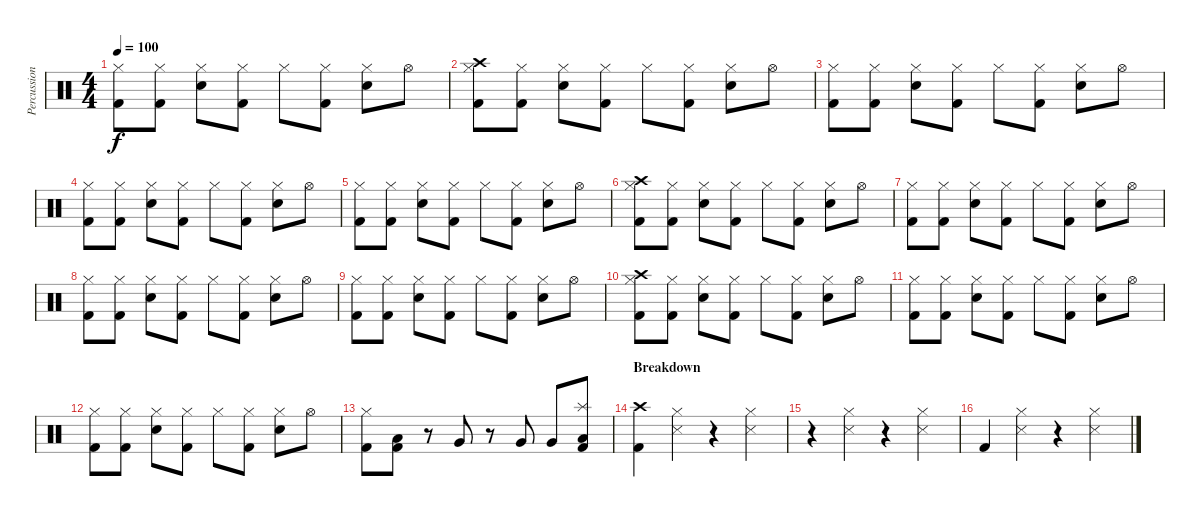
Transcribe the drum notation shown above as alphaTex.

\track ("Percussion" "Percussion") {instrument percussion}
\staff {score}
\articulation defaults
\ts (4 4)
\tempo 100
\clef neutral
\ks c
("Hi-Hat (closed)" "Kick (hit) 2").8{dy f} ("Hi-Hat (closed)" "Kick (hit) 2").8 ("Hi-Hat (closed)" "Electric Snare (hit)").8 ("Hi-Hat (closed)" "Kick (hit) 2").8 "Hi-Hat (closed)".8 ("Hi-Hat (closed)" "Kick (hit) 2").8 ("Hi-Hat (closed)" "Electric Snare (hit)").8 "Hi-Hat (open)".8 |
("Crash high (hit)" "Hi-Hat (closed)" "Kick (hit) 2").8 ("Hi-Hat (closed)" "Kick (hit) 2").8 ("Hi-Hat (closed)" "Electric Snare (hit)").8 ("Hi-Hat (closed)" "Kick (hit) 2").8 "Hi-Hat (closed)".8 ("Hi-Hat (closed)" "Kick (hit) 2").8 ("Hi-Hat (closed)" "Electric Snare (hit)").8 "Hi-Hat (open)".8 |
("Hi-Hat (closed)" "Kick (hit) 2").8 ("Hi-Hat (closed)" "Kick (hit) 2").8 ("Hi-Hat (closed)" "Electric Snare (hit)").8 ("Hi-Hat (closed)" "Kick (hit) 2").8 "Hi-Hat (closed)".8 ("Hi-Hat (closed)" "Kick (hit) 2").8 ("Hi-Hat (closed)" "Electric Snare (hit)").8 "Hi-Hat (open)".8 |
("Hi-Hat (closed)" "Kick (hit) 2").8 ("Hi-Hat (closed)" "Kick (hit) 2").8 ("Hi-Hat (closed)" "Electric Snare (hit)").8 ("Hi-Hat (closed)" "Kick (hit) 2").8 "Hi-Hat (closed)".8 ("Hi-Hat (closed)" "Kick (hit) 2").8 ("Hi-Hat (closed)" "Electric Snare (hit)").8 "Hi-Hat (open)".8 |
("Hi-Hat (closed)" "Kick (hit) 2").8 ("Hi-Hat (closed)" "Kick (hit) 2").8 ("Hi-Hat (closed)" "Electric Snare (hit)").8 ("Hi-Hat (closed)" "Kick (hit) 2").8 "Hi-Hat (closed)".8 ("Hi-Hat (closed)" "Kick (hit) 2").8 ("Hi-Hat (closed)" "Electric Snare (hit)").8 "Hi-Hat (open)".8 |
("Crash high (hit)" "Hi-Hat (closed)" "Kick (hit) 2").8 ("Hi-Hat (closed)" "Kick (hit) 2").8 ("Hi-Hat (closed)" "Electric Snare (hit)").8 ("Hi-Hat (closed)" "Kick (hit) 2").8 "Hi-Hat (closed)".8 ("Hi-Hat (closed)" "Kick (hit) 2").8 ("Hi-Hat (closed)" "Electric Snare (hit)").8 "Hi-Hat (open)".8 |
("Hi-Hat (closed)" "Kick (hit) 2").8 ("Hi-Hat (closed)" "Kick (hit) 2").8 ("Hi-Hat (closed)" "Electric Snare (hit)").8 ("Hi-Hat (closed)" "Kick (hit) 2").8 "Hi-Hat (closed)".8 ("Hi-Hat (closed)" "Kick (hit) 2").8 ("Hi-Hat (closed)" "Electric Snare (hit)").8 "Hi-Hat (open)".8 |
("Hi-Hat (closed)" "Kick (hit) 2").8 ("Hi-Hat (closed)" "Kick (hit) 2").8 ("Hi-Hat (closed)" "Electric Snare (hit)").8 ("Hi-Hat (closed)" "Kick (hit) 2").8 "Hi-Hat (closed)".8 ("Hi-Hat (closed)" "Kick (hit) 2").8 ("Hi-Hat (closed)" "Electric Snare (hit)").8 "Hi-Hat (open)".8 |
("Hi-Hat (closed)" "Kick (hit) 2").8 ("Hi-Hat (closed)" "Kick (hit) 2").8 ("Hi-Hat (closed)" "Electric Snare (hit)").8 ("Hi-Hat (closed)" "Kick (hit) 2").8 "Hi-Hat (closed)".8 ("Hi-Hat (closed)" "Kick (hit) 2").8 ("Hi-Hat (closed)" "Electric Snare (hit)").8 "Hi-Hat (open)".8 |
("Crash high (hit)" "Hi-Hat (closed)" "Kick (hit) 2").8 ("Hi-Hat (closed)" "Kick (hit) 2").8 ("Hi-Hat (closed)" "Electric Snare (hit)").8 ("Hi-Hat (closed)" "Kick (hit) 2").8 "Hi-Hat (closed)".8 ("Hi-Hat (closed)" "Kick (hit) 2").8 ("Hi-Hat (closed)" "Electric Snare (hit)").8 "Hi-Hat (open)".8 |
("Hi-Hat (closed)" "Kick (hit) 2").8 ("Hi-Hat (closed)" "Kick (hit) 2").8 ("Hi-Hat (closed)" "Electric Snare (hit)").8 ("Hi-Hat (closed)" "Kick (hit) 2").8 "Hi-Hat (closed)".8 ("Hi-Hat (closed)" "Kick (hit) 2").8 ("Hi-Hat (closed)" "Electric Snare (hit)").8 "Hi-Hat (open)".8 |
("Hi-Hat (closed)" "Kick (hit) 2").8 ("Hi-Hat (closed)" "Kick (hit) 2").8 ("Hi-Hat (closed)" "Electric Snare (hit)").8 ("Hi-Hat (closed)" "Kick (hit) 2").8 "Hi-Hat (closed)".8 ("Hi-Hat (closed)" "Kick (hit) 2").8 ("Hi-Hat (closed)" "Electric Snare (hit)").8 "Hi-Hat (open)".8 |
("Hi-Hat (closed)" "Kick (hit) 2").8 ("Low Tom (hit)" "Kick (hit) 2").8 r.8 "Very Low Tom (hit)".8 r.8 "Very Low Tom (hit)".8 "Very Low Tom (hit)".8 ("Splash (hit)" "Low Floor Tom (hit)" "Kick (hit) 2").8 |
\section ("" "Breakdown")
("Crash high (hit)" "Kick (hit) 2").4 ("Hi-Hat (closed)" "Snare (side stick) 3").4 r.4 ("Hi-Hat (closed)" "Snare (side stick) 3").4 |
r.4 ("Hi-Hat (closed)" "Snare (side stick) 3").4 r.4 ("Hi-Hat (closed)" "Snare (side stick) 3").4 |
"Kick (hit) 2".4 ("Hi-Hat (closed)" "Snare (side stick) 3").4 r.4 ("Hi-Hat (closed)" "Snare (side stick) 3").4
